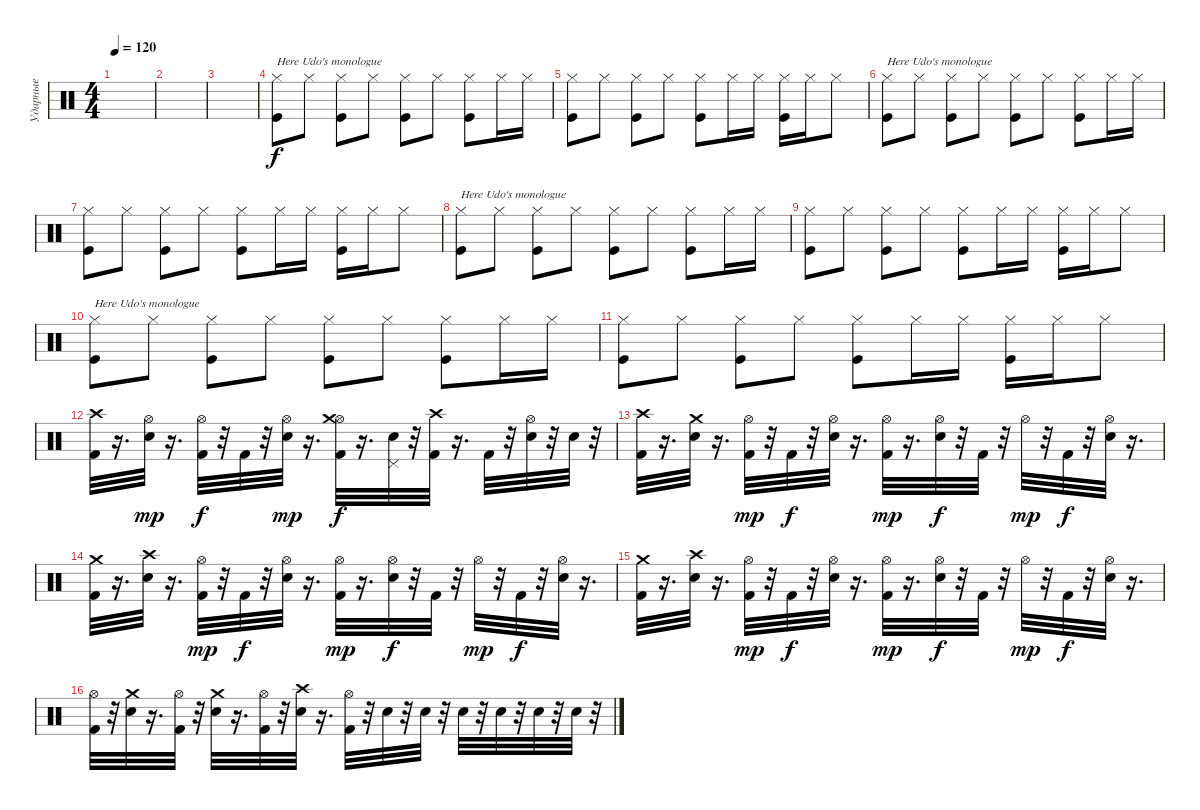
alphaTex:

\track ("Ударные" "Ударные") {instrument percussion}
\staff {score}
\articulation defaults
\ts (4 4)
\tempo 120
\clef neutral
\ks c
|
|
|
("Hi-Hat (closed)" "Kick (hit)").8{txt "Here Udo's monologue" dy f} "Hi-Hat (closed)".8 ("Hi-Hat (closed)" "Kick (hit)").8 "Hi-Hat (closed)".8 ("Hi-Hat (closed)" "Kick (hit)").8 "Hi-Hat (closed)".8 ("Hi-Hat (closed)" "Kick (hit)").8 "Hi-Hat (closed)".16 "Hi-Hat (closed)".16 |
("Hi-Hat (closed)" "Kick (hit)").8 "Hi-Hat (closed)".8 ("Hi-Hat (closed)" "Kick (hit)").8 "Hi-Hat (closed)".8 ("Hi-Hat (closed)" "Kick (hit)").8 "Hi-Hat (closed)".16 "Hi-Hat (closed)".16 ("Hi-Hat (closed)" "Kick (hit)").16 "Hi-Hat (closed)".16 "Hi-Hat (closed)".8 |
("Hi-Hat (closed)" "Kick (hit)").8{txt "Here Udo's monologue"} "Hi-Hat (closed)".8 ("Hi-Hat (closed)" "Kick (hit)").8 "Hi-Hat (closed)".8 ("Hi-Hat (closed)" "Kick (hit)").8 "Hi-Hat (closed)".8 ("Hi-Hat (closed)" "Kick (hit)").8 "Hi-Hat (closed)".16 "Hi-Hat (closed)".16 |
("Hi-Hat (closed)" "Kick (hit)").8 "Hi-Hat (closed)".8 ("Hi-Hat (closed)" "Kick (hit)").8 "Hi-Hat (closed)".8 ("Hi-Hat (closed)" "Kick (hit)").8 "Hi-Hat (closed)".16 "Hi-Hat (closed)".16 ("Hi-Hat (closed)" "Kick (hit)").16 "Hi-Hat (closed)".16 "Hi-Hat (closed)".8 |
("Hi-Hat (closed)" "Kick (hit)").8{txt "Here Udo's monologue"} "Hi-Hat (closed)".8 ("Hi-Hat (closed)" "Kick (hit)").8 "Hi-Hat (closed)".8 ("Hi-Hat (closed)" "Kick (hit)").8 "Hi-Hat (closed)".8 ("Hi-Hat (closed)" "Kick (hit)").8 "Hi-Hat (closed)".16 "Hi-Hat (closed)".16 |
("Hi-Hat (closed)" "Kick (hit)").8 "Hi-Hat (closed)".8 ("Hi-Hat (closed)" "Kick (hit)").8 "Hi-Hat (closed)".8 ("Hi-Hat (closed)" "Kick (hit)").8 "Hi-Hat (closed)".16 "Hi-Hat (closed)".16 ("Hi-Hat (closed)" "Kick (hit)").16 "Hi-Hat (closed)".16 "Hi-Hat (closed)".8 |
("Hi-Hat (closed)" "Kick (hit)").8{txt "Here Udo's monologue"} "Hi-Hat (closed)".8 ("Hi-Hat (closed)" "Kick (hit)").8 "Hi-Hat (closed)".8 ("Hi-Hat (closed)" "Kick (hit)").8 "Hi-Hat (closed)".8 ("Hi-Hat (closed)" "Kick (hit)").8 "Hi-Hat (closed)".16 "Hi-Hat (closed)".16 |
("Hi-Hat (closed)" "Kick (hit)").8 "Hi-Hat (closed)".8 ("Hi-Hat (closed)" "Kick (hit)").8 "Hi-Hat (closed)".8 ("Hi-Hat (closed)" "Kick (hit)").8 "Hi-Hat (closed)".16 "Hi-Hat (closed)".16 ("Hi-Hat (closed)" "Kick (hit)").16 "Hi-Hat (closed)".16 "Hi-Hat (closed)".8 |
("Crash high (hit)" "Kick (hit) 2").32 r.16{d} ("Hi-Hat (open)" "Electric Snare (hit)").32{dy mp} r.16{d} ("Hi-Hat (open)" "Kick (hit) 2").32{dy f} r.32 "Kick (hit) 2".32 r.32 ("Hi-Hat (open)" "Electric Snare (hit)").32{dy mp} r.16{d} ("Hi-Hat (open)" "Crash medium (hit)" "Kick (hit) 2").32{dy f} r.16{d} ("Pedal Hi-Hat (hit)" "Electric Snare (hit)").32 r.32 ("Crash high (hit)" "Kick (hit) 2").32 r.16{d} "Kick (hit) 2".32 r.32 ("Hi-Hat (open)" "Electric Snare (hit)").32 r.32 "Electric Snare (hit)".32 r.32 |
("Crash high (hit)" "Kick (hit) 2").32 r.16{d} ("Crash medium (hit)" "Electric Snare (hit)").32 r.16{d} ("Hi-Hat (open)" "Kick (hit) 2").32{dy mp} r.32 "Kick (hit) 2".32{dy f} r.32 ("Hi-Hat (open)" "Electric Snare (hit)").32 r.16{d} ("Hi-Hat (open)" "Kick (hit) 2").32{dy mp} r.16{d} ("Hi-Hat (open)" "Electric Snare (hit)").32{dy f} r.32 "Kick (hit) 2".32 r.32 "Hi-Hat (open)".32{dy mp} r.32 "Kick (hit) 2".32{dy f} r.32 ("Hi-Hat (open)" "Electric Snare (hit)").32 r.16{d} |
("Crash medium (hit)" "Kick (hit) 2").32 r.16{d} ("Electric Snare (hit)" "Crash high (hit)").32 r.16{d} ("Hi-Hat (open)" "Kick (hit) 2").32{dy mp} r.32 "Kick (hit) 2".32{dy f} r.32 ("Hi-Hat (open)" "Electric Snare (hit)").32 r.16{d} ("Hi-Hat (open)" "Kick (hit) 2").32{dy mp} r.16{d} ("Hi-Hat (open)" "Electric Snare (hit)").32{dy f} r.32 "Kick (hit) 2".32 r.32 "Hi-Hat (open)".32{dy mp} r.32 "Kick (hit) 2".32{dy f} r.32 ("Hi-Hat (open)" "Electric Snare (hit)").32 r.16{d} |
("Kick (hit) 2" "Crash medium (hit)").32 r.16{d} ("Electric Snare (hit)" "Crash high (hit)").32 r.16{d} ("Hi-Hat (open)" "Kick (hit) 2").32{dy mp} r.32 "Kick (hit) 2".32{dy f} r.32 ("Electric Snare (hit)" "Hi-Hat (open)").32 r.16{d} ("Hi-Hat (open)" "Kick (hit) 2").32{dy mp} r.16{d} ("Electric Snare (hit)" "Hi-Hat (open)").32{dy f} r.32 "Kick (hit) 2".32 r.32 "Hi-Hat (open)".32{dy mp} r.32 "Kick (hit) 2".32{dy f} r.32 ("Electric Snare (hit)" "Hi-Hat (open)").32 r.16{d} |
("Hi-Hat (open)" "Kick (hit) 2").32 r.32 ("Crash medium (hit)" "Electric Snare (hit)").32 r.16{d} ("Hi-Hat (open)" "Kick (hit) 2").32 r.32 ("Crash medium (hit)" "Electric Snare (hit)").32 r.16{d} ("Hi-Hat (open)" "Kick (hit) 2").32 r.32 ("Crash high (hit)" "Electric Snare (hit)").32 r.16{d} ("Hi-Hat (open)" "Kick (hit) 2").32 r.32 "Electric Snare (hit)".32 r.32 "Electric Snare (hit)".32 r.32 "Electric Snare (hit)".32 r.32 "Electric Snare (hit)".32 r.32 "Electric Snare (hit)".32 r.32 "Electric Snare (hit)".32 r.32
